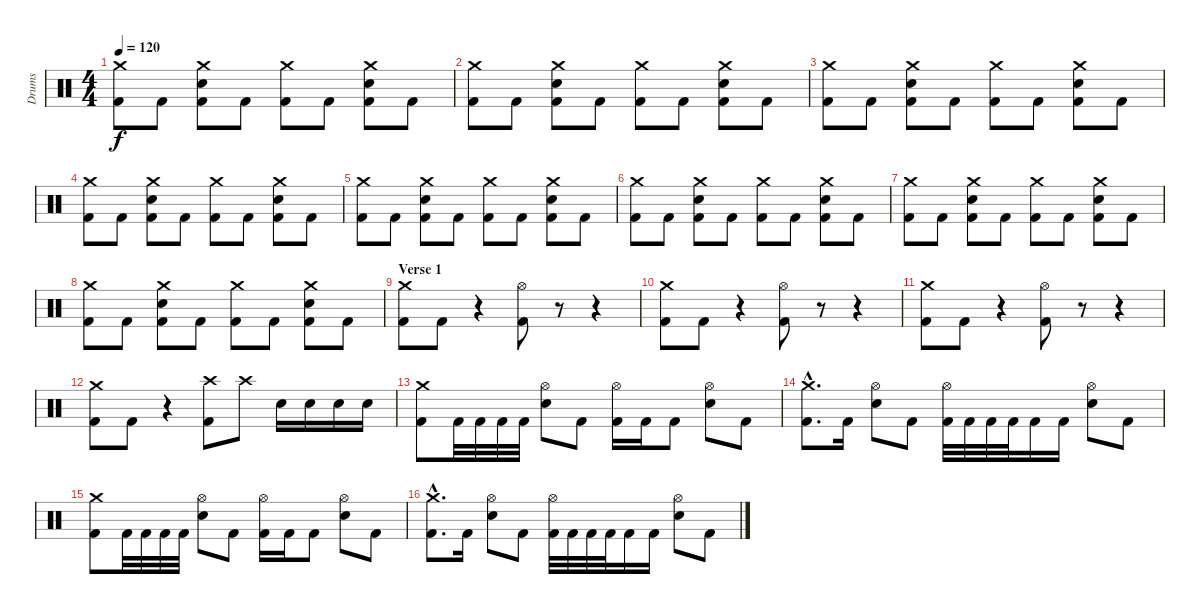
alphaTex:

\track ("Drums" "Drums") {instrument percussion}
\staff {score}
\articulation defaults
\ts (4 4)
\tempo 120
\clef neutral
\ks c
("Crash medium (hit)" "Kick (hit) 2").8{dy f} "Kick (hit) 2".8 ("Crash medium (hit)" "Electric Snare (hit)" "Kick (hit) 2").8 "Kick (hit) 2".8 ("Crash medium (hit)" "Kick (hit) 2").8 "Kick (hit) 2".8 ("Crash medium (hit)" "Electric Snare (hit)" "Kick (hit) 2").8 "Kick (hit) 2".8 |
("Crash medium (hit)" "Kick (hit) 2").8 "Kick (hit) 2".8 ("Crash medium (hit)" "Electric Snare (hit)" "Kick (hit) 2").8 "Kick (hit) 2".8 ("Crash medium (hit)" "Kick (hit) 2").8 "Kick (hit) 2".8 ("Crash medium (hit)" "Electric Snare (hit)" "Kick (hit) 2").8 "Kick (hit) 2".8 |
("Crash medium (hit)" "Kick (hit) 2").8 "Kick (hit) 2".8 ("Crash medium (hit)" "Electric Snare (hit)" "Kick (hit) 2").8 "Kick (hit) 2".8 ("Crash medium (hit)" "Kick (hit) 2").8 "Kick (hit) 2".8 ("Crash medium (hit)" "Electric Snare (hit)" "Kick (hit) 2").8 "Kick (hit) 2".8 |
("Crash medium (hit)" "Kick (hit) 2").8 "Kick (hit) 2".8 ("Crash medium (hit)" "Electric Snare (hit)" "Kick (hit) 2").8 "Kick (hit) 2".8 ("Crash medium (hit)" "Kick (hit) 2").8 "Kick (hit) 2".8 ("Crash medium (hit)" "Electric Snare (hit)" "Kick (hit) 2").8 "Kick (hit) 2".8 |
("Crash medium (hit)" "Kick (hit) 2").8 "Kick (hit) 2".8 ("Crash medium (hit)" "Electric Snare (hit)" "Kick (hit) 2").8 "Kick (hit) 2".8 ("Crash medium (hit)" "Kick (hit) 2").8 "Kick (hit) 2".8 ("Crash medium (hit)" "Electric Snare (hit)" "Kick (hit) 2").8 "Kick (hit) 2".8 |
("Crash medium (hit)" "Kick (hit) 2").8 "Kick (hit) 2".8 ("Crash medium (hit)" "Electric Snare (hit)" "Kick (hit) 2").8 "Kick (hit) 2".8 ("Crash medium (hit)" "Kick (hit) 2").8 "Kick (hit) 2".8 ("Crash medium (hit)" "Electric Snare (hit)" "Kick (hit) 2").8 "Kick (hit) 2".8 |
("Crash medium (hit)" "Kick (hit) 2").8 "Kick (hit) 2".8 ("Crash medium (hit)" "Electric Snare (hit)" "Kick (hit) 2").8 "Kick (hit) 2".8 ("Crash medium (hit)" "Kick (hit) 2").8 "Kick (hit) 2".8 ("Crash medium (hit)" "Electric Snare (hit)" "Kick (hit) 2").8 "Kick (hit) 2".8 |
("Crash medium (hit)" "Kick (hit) 2").8 "Kick (hit) 2".8 ("Crash medium (hit)" "Electric Snare (hit)" "Kick (hit) 2").8 "Kick (hit) 2".8 ("Crash medium (hit)" "Kick (hit) 2").8 "Kick (hit) 2".8 ("Crash medium (hit)" "Electric Snare (hit)" "Kick (hit) 2").8 "Kick (hit) 2".8 |
\section ("" "Verse 1")
("Crash medium (hit)" "Kick (hit) 2").8 "Kick (hit) 2".8 r.4 ("Hi-Hat (open)" "Kick (hit) 2").8 r.8 r.4 |
("Crash medium (hit)" "Kick (hit) 2").8 "Kick (hit) 2".8 r.4 ("Hi-Hat (open)" "Kick (hit) 2").8 r.8 r.4 |
("Crash medium (hit)" "Kick (hit) 2").8 "Kick (hit) 2".8 r.4 ("Hi-Hat (open)" "Kick (hit) 2").8 r.8 r.4 |
("Crash medium (hit)" "Kick (hit) 2").8 "Kick (hit) 2".8 r.4 ("Crash high (hit)" "Kick (hit) 2").8 "Crash high (hit)".8 "Electric Snare (hit)".16 "Electric Snare (hit)".16 "Electric Snare (hit)".16 "Electric Snare (hit)".16 |
("Crash medium (hit)" "Kick (hit) 2").8 "Kick (hit) 2".32 "Kick (hit) 2".32 "Kick (hit) 2".32 "Kick (hit) 2".32 ("Hi-Hat (open)" "Electric Snare (hit)").8 "Kick (hit) 2".8 ("Hi-Hat (open)" "Kick (hit) 2").16 "Kick (hit) 2".16 "Kick (hit) 2".8 ("Hi-Hat (open)" "Electric Snare (hit)").8 "Kick (hit) 2".8 |
("Crash medium (hit)"{hac} "Kick (hit) 2"{hac}).8{d} "Kick (hit) 2".16 ("Hi-Hat (open)" "Electric Snare (hit)").8 "Kick (hit) 2".8 ("Hi-Hat (open)" "Kick (hit) 2").32 "Kick (hit) 2".32 "Kick (hit) 2".32 "Kick (hit) 2".32 "Kick (hit) 2".16 "Kick (hit) 2".16 ("Hi-Hat (open)" "Electric Snare (hit)").8 "Kick (hit) 2".8 |
("Crash medium (hit)" "Kick (hit) 2").8 "Kick (hit) 2".32 "Kick (hit) 2".32 "Kick (hit) 2".32 "Kick (hit) 2".32 ("Hi-Hat (open)" "Electric Snare (hit)").8 "Kick (hit) 2".8 ("Hi-Hat (open)" "Kick (hit) 2").16 "Kick (hit) 2".16 "Kick (hit) 2".8 ("Hi-Hat (open)" "Electric Snare (hit)").8 "Kick (hit) 2".8 |
("Crash medium (hit)"{hac} "Kick (hit) 2"{hac}).8{d} "Kick (hit) 2".16 ("Hi-Hat (open)" "Electric Snare (hit)").8 "Kick (hit) 2".8 ("Hi-Hat (open)" "Kick (hit) 2").32 "Kick (hit) 2".32 "Kick (hit) 2".32 "Kick (hit) 2".32 "Kick (hit) 2".16 "Kick (hit) 2".16 ("Hi-Hat (open)" "Electric Snare (hit)").8 "Kick (hit) 2".8
